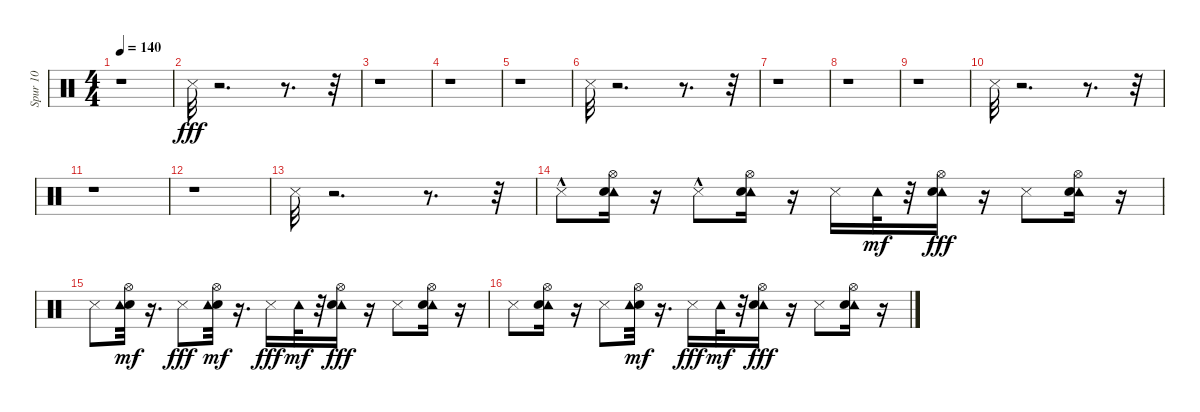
\track ("Spur 10" "Spur 10") {instrument percussion}
\staff {score}
\articulation defaults
\ts (4 4)
\tempo 140
\clef neutral
\ks c
r.1{dy fff} |
"Metronome (hit)".32 r.2{d} r.8{d} r.32 |
r.1 |
r.1 |
r.1 |
"Metronome (hit)".32 r.2{d} r.8{d} r.32 |
r.1 |
r.1 |
r.1 |
"Metronome (hit)".32 r.2{d} r.8{d} r.32 |
r.1 |
r.1 |
"Metronome (hit)".32 r.2{d} r.8{d} r.32 |
"Metronome (hit)"{hac}.8 ("Tambourine (hit)" "Hi-Hat (open)" "Snare (hit)").16 r.16 "Metronome (hit)"{hac}.8 ("Tambourine (hit)" "Hi-Hat (open)" "Snare (hit)").16 r.16 "Metronome (hit)".16 "Tambourine (hit)".32{dy mf} r.32 ("Tambourine (hit)" "Hi-Hat (open)" "Snare (hit)").16{dy fff} r.16 "Metronome (hit)".8 ("Tambourine (hit)" "Hi-Hat (open)" "Snare (hit)").16 r.16 |
"Metronome (hit)".8 ("Hi-Hat (open)" "Snare (hit)" "Tambourine (hit)").32{dy mf} r.16{d} "Metronome (hit)".8{dy fff} ("Hi-Hat (open)" "Snare (hit)" "Tambourine (hit)").32{dy mf} r.16{d} "Metronome (hit)".16{dy fff} "Tambourine (hit)".32{dy mf} r.32 ("Tambourine (hit)" "Hi-Hat (open)" "Snare (hit)").16{dy fff} r.16 "Metronome (hit)".8 ("Tambourine (hit)" "Hi-Hat (open)" "Snare (hit)").16 r.16 |
"Metronome (hit)".8 ("Tambourine (hit)" "Hi-Hat (open)" "Snare (hit)").16 r.16 "Metronome (hit)".8 ("Hi-Hat (open)" "Snare (hit)" "Tambourine (hit)").32{dy mf} r.16{d} "Metronome (hit)".16{dy fff} "Tambourine (hit)".32{dy mf} r.32 ("Tambourine (hit)" "Hi-Hat (open)" "Snare (hit)").16{dy fff} r.16 "Metronome (hit)".8 ("Tambourine (hit)" "Hi-Hat (open)" "Snare (hit)").16 r.16
